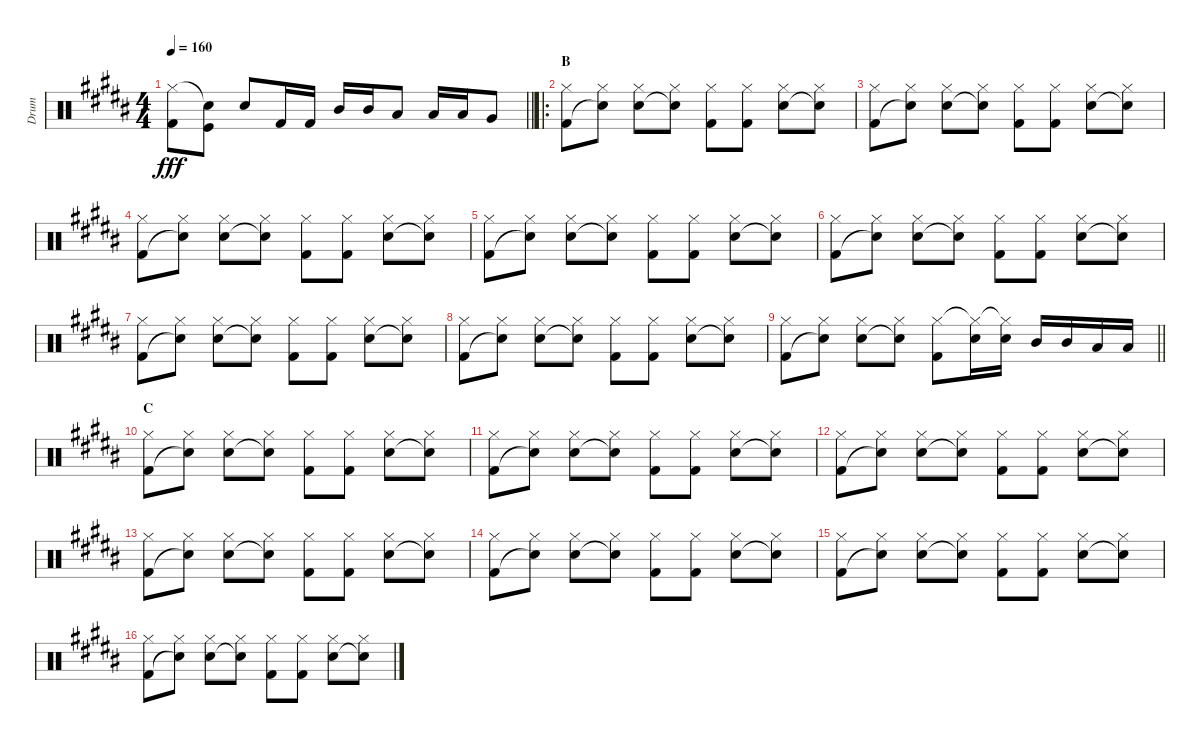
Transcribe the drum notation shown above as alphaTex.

\track ("Drum" "Drum") {instrument percussion}
\staff {score}
\articulation defaults
\ts (4 4)
\tempo 160
\clef neutral
\barLineRight lightlight
\ks b
("Hi-Hat (closed)" "Kick (hit) 2").8{dy fff} ("Snare (hit)"{t} "Kick (hit)").8 "Snare (hit) 2".8 "Kick (hit) 2".16 "Kick (hit) 2".16 "Mid Tom (hit)".16 "Mid Tom (hit)".16 "Low Tom (hit)".8 "Low Tom (hit)".16 "Low Tom (hit)".16 "Very Low Tom (hit)".8 |
\ro
\section ("" "B")
("Hi-Hat (closed)" "Kick (hit) 2").8 ("Hi-Hat (closed)" "Snare (hit)"{t}).8 ("Hi-Hat (closed)" "Snare (hit) 2").8 ("Hi-Hat (closed)" "Snare (hit)"{t}).8 ("Hi-Hat (closed)" "Kick (hit) 2").8 ("Hi-Hat (closed)" "Kick (hit) 2").8 ("Hi-Hat (closed)" "Snare (hit) 2").8 ("Hi-Hat (closed)" "Snare (hit)"{t}).8 |
("Hi-Hat (closed)" "Kick (hit) 2").8 ("Hi-Hat (closed)" "Snare (hit)"{t}).8 ("Hi-Hat (closed)" "Snare (hit) 2").8 ("Hi-Hat (closed)" "Snare (hit)"{t}).8 ("Hi-Hat (closed)" "Kick (hit) 2").8 ("Hi-Hat (closed)" "Kick (hit) 2").8 ("Hi-Hat (closed)" "Snare (hit) 2").8 ("Hi-Hat (closed)" "Snare (hit)"{t}).8 |
("Hi-Hat (closed)" "Kick (hit) 2").8 ("Hi-Hat (closed)" "Snare (hit)"{t}).8 ("Hi-Hat (closed)" "Snare (hit) 2").8 ("Hi-Hat (closed)" "Snare (hit)"{t}).8 ("Hi-Hat (closed)" "Kick (hit) 2").8 ("Hi-Hat (closed)" "Kick (hit) 2").8 ("Hi-Hat (closed)" "Snare (hit) 2").8 ("Hi-Hat (closed)" "Snare (hit)"{t}).8 |
("Hi-Hat (closed)" "Kick (hit) 2").8 ("Hi-Hat (closed)" "Snare (hit)"{t}).8 ("Hi-Hat (closed)" "Snare (hit) 2").8 ("Hi-Hat (closed)" "Snare (hit)"{t}).8 ("Hi-Hat (closed)" "Kick (hit) 2").8 ("Hi-Hat (closed)" "Kick (hit) 2").8 ("Hi-Hat (closed)" "Snare (hit) 2").8 ("Hi-Hat (closed)" "Snare (hit)"{t}).8 |
("Hi-Hat (closed)" "Kick (hit) 2").8 ("Hi-Hat (closed)" "Snare (hit)"{t}).8 ("Hi-Hat (closed)" "Snare (hit) 2").8 ("Hi-Hat (closed)" "Snare (hit)"{t}).8 ("Hi-Hat (closed)" "Kick (hit) 2").8 ("Hi-Hat (closed)" "Kick (hit) 2").8 ("Hi-Hat (closed)" "Snare (hit) 2").8 ("Hi-Hat (closed)" "Snare (hit)"{t}).8 |
("Hi-Hat (closed)" "Kick (hit) 2").8 ("Hi-Hat (closed)" "Snare (hit)"{t}).8 ("Hi-Hat (closed)" "Snare (hit) 2").8 ("Hi-Hat (closed)" "Snare (hit)"{t}).8 ("Hi-Hat (closed)" "Kick (hit) 2").8 ("Hi-Hat (closed)" "Kick (hit) 2").8 ("Hi-Hat (closed)" "Snare (hit) 2").8 ("Hi-Hat (closed)" "Snare (hit)"{t}).8 |
("Hi-Hat (closed)" "Kick (hit) 2").8 ("Hi-Hat (closed)" "Snare (hit)"{t}).8 ("Hi-Hat (closed)" "Snare (hit) 2").8 ("Hi-Hat (closed)" "Snare (hit)"{t}).8 ("Hi-Hat (closed)" "Kick (hit) 2").8 ("Hi-Hat (closed)" "Kick (hit) 2").8 ("Hi-Hat (closed)" "Snare (hit) 2").8 ("Hi-Hat (closed)" "Snare (hit)"{t}).8 |
\barLineRight lightlight
("Hi-Hat (closed)" "Kick (hit) 2").8 ("Hi-Hat (closed)" "Snare (hit)"{t}).8 ("Hi-Hat (closed)" "Snare (hit) 2").8 ("Hi-Hat (closed)" "Snare (hit)"{t}).8 ("Hi-Hat (closed)" "Kick (hit) 2").8 ("Hi-Hat (closed)"{t} "Snare (hit) 2").16 ("Hi-Hat (closed)"{t} "Snare (hit) 2").16 "Mid Tom (hit)".16 "Mid Tom (hit)".16 "Low Tom (hit)".16 "Low Tom (hit)".16 |
\section ("" "C")
("Hi-Hat (closed)" "Kick (hit) 2").8 ("Hi-Hat (closed)" "Snare (hit)"{t}).8 ("Hi-Hat (closed)" "Snare (hit) 2").8 ("Hi-Hat (closed)" "Snare (hit)"{t}).8 ("Hi-Hat (closed)" "Kick (hit) 2").8 ("Hi-Hat (closed)" "Kick (hit) 2").8 ("Hi-Hat (closed)" "Snare (hit) 2").8 ("Hi-Hat (closed)" "Snare (hit)"{t}).8 |
("Hi-Hat (closed)" "Kick (hit) 2").8 ("Hi-Hat (closed)" "Snare (hit)"{t}).8 ("Hi-Hat (closed)" "Snare (hit) 2").8 ("Hi-Hat (closed)" "Snare (hit)"{t}).8 ("Hi-Hat (closed)" "Kick (hit) 2").8 ("Hi-Hat (closed)" "Kick (hit) 2").8 ("Hi-Hat (closed)" "Snare (hit) 2").8 ("Hi-Hat (closed)" "Snare (hit)"{t}).8 |
("Hi-Hat (closed)" "Kick (hit) 2").8 ("Hi-Hat (closed)" "Snare (hit)"{t}).8 ("Hi-Hat (closed)" "Snare (hit) 2").8 ("Hi-Hat (closed)" "Snare (hit)"{t}).8 ("Hi-Hat (closed)" "Kick (hit) 2").8 ("Hi-Hat (closed)" "Kick (hit) 2").8 ("Hi-Hat (closed)" "Snare (hit) 2").8 ("Hi-Hat (closed)" "Snare (hit)"{t}).8 |
("Hi-Hat (closed)" "Kick (hit) 2").8 ("Hi-Hat (closed)" "Snare (hit)"{t}).8 ("Hi-Hat (closed)" "Snare (hit) 2").8 ("Hi-Hat (closed)" "Snare (hit)"{t}).8 ("Hi-Hat (closed)" "Kick (hit) 2").8 ("Hi-Hat (closed)" "Kick (hit) 2").8 ("Hi-Hat (closed)" "Snare (hit) 2").8 ("Hi-Hat (closed)" "Snare (hit)"{t}).8 |
("Hi-Hat (closed)" "Kick (hit) 2").8 ("Hi-Hat (closed)" "Snare (hit)"{t}).8 ("Hi-Hat (closed)" "Snare (hit) 2").8 ("Hi-Hat (closed)" "Snare (hit)"{t}).8 ("Hi-Hat (closed)" "Kick (hit) 2").8 ("Hi-Hat (closed)" "Kick (hit) 2").8 ("Hi-Hat (closed)" "Snare (hit) 2").8 ("Hi-Hat (closed)" "Snare (hit)"{t}).8 |
("Hi-Hat (closed)" "Kick (hit) 2").8 ("Hi-Hat (closed)" "Snare (hit)"{t}).8 ("Hi-Hat (closed)" "Snare (hit) 2").8 ("Hi-Hat (closed)" "Snare (hit)"{t}).8 ("Hi-Hat (closed)" "Kick (hit) 2").8 ("Hi-Hat (closed)" "Kick (hit) 2").8 ("Hi-Hat (closed)" "Snare (hit) 2").8 ("Hi-Hat (closed)" "Snare (hit)"{t}).8 |
("Hi-Hat (closed)" "Kick (hit) 2").8 ("Hi-Hat (closed)" "Snare (hit)"{t}).8 ("Hi-Hat (closed)" "Snare (hit) 2").8 ("Hi-Hat (closed)" "Snare (hit)"{t}).8 ("Hi-Hat (closed)" "Kick (hit) 2").8 ("Hi-Hat (closed)" "Kick (hit) 2").8 ("Hi-Hat (closed)" "Snare (hit) 2").8 ("Hi-Hat (closed)" "Snare (hit)"{t}).8
